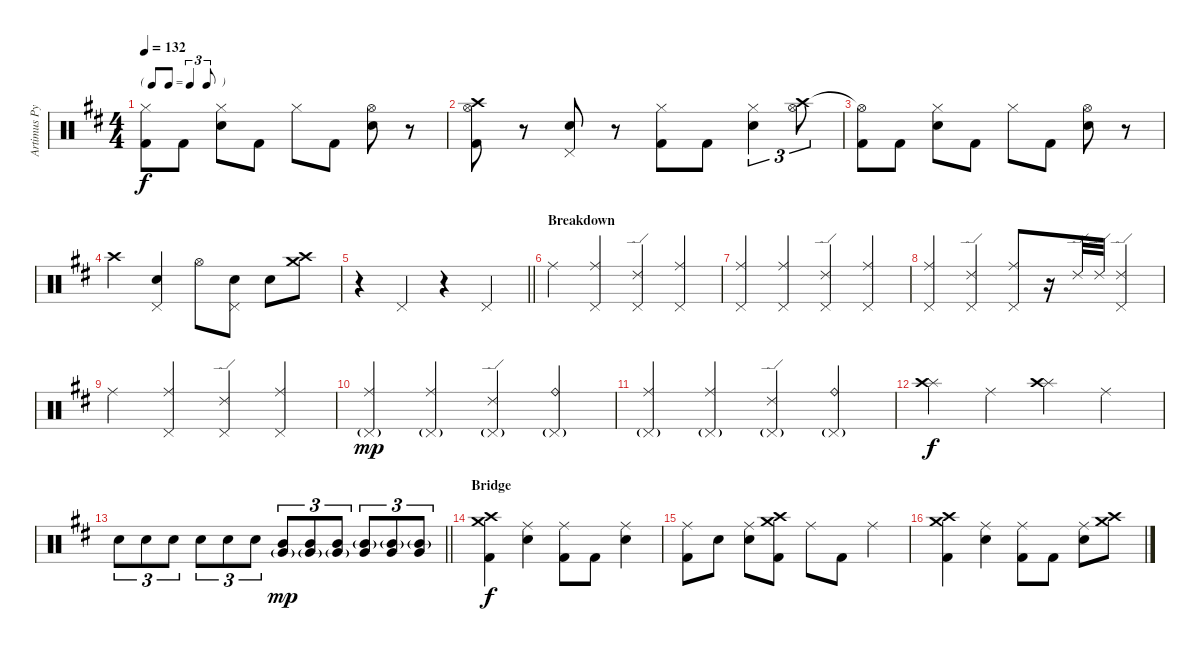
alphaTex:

\track ("Artimus Pyle - Drums" "Artimus Py") {solo instrument percussion}
\staff {score}
\articulation defaults
\ts (4 4)
\tf triplet8th
\tempo 132
\clef neutral
\ks d
("Hi-Hat (closed)"{t} "Kick (hit) 2").8{dy f} "Kick (hit) 2".8 ("Snare (hit) 2" "Hi-Hat (closed)").8 "Kick (hit) 2".8 "Hi-Hat (closed)".8 "Kick (hit) 2".8 ("Snare (hit) 2" "Hi-Hat (open)").8 r.8 |
("Crash high (hit)" "Hi-Hat (open)" "Kick (hit) 2").8 r.8 ("Snare (hit) 2" "Pedal Hi-Hat (hit)").8 r.8 ("Hi-Hat (closed)" "Kick (hit) 2").8 "Kick (hit) 2".8 ("Snare (hit) 2" "Hi-Hat (closed)").4{tu (3 2)} ("Crash high (hit)" "Hi-Hat (open)").8{tu (3 2)} |
("Hi-Hat (open)"{t} "Kick (hit) 2").8 "Kick (hit) 2".8 ("Snare (hit) 2" "Hi-Hat (closed)").8 "Kick (hit) 2".8 "Hi-Hat (closed)".8 "Kick (hit) 2".8 ("Snare (hit) 2" "Hi-Hat (open)").8 r.8 |
"Crash high (hit)".4 ("Snare (hit) 2" "Pedal Hi-Hat (hit)").4 "Hi-Hat (open)".8 ("Snare (hit) 2" "Pedal Hi-Hat (hit)").8 "Snare (hit) 2".8 ("Crash high (hit)" "Crash medium (hit)").8 |
\barLineRight lightlight
r.4 "Pedal Hi-Hat (hit)".4 r.4 "Pedal Hi-Hat (hit)".4 |
\section ("" "Breakdown")
"Ride (middle)".4 ("Ride (middle)" "Pedal Hi-Hat (hit)").4 ("Ride (edge) 2" "Pedal Hi-Hat (hit)").4 ("Ride (middle)" "Pedal Hi-Hat (hit)").4 |
("Ride (middle)" "Pedal Hi-Hat (hit)").4 ("Ride (middle)" "Pedal Hi-Hat (hit)").4 ("Ride (edge) 2" "Pedal Hi-Hat (hit)").4 ("Ride (middle)" "Pedal Hi-Hat (hit)").4 |
("Ride (middle)" "Pedal Hi-Hat (hit)").4 ("Ride (edge) 2" "Pedal Hi-Hat (hit)").4 ("Ride (middle)" "Pedal Hi-Hat (hit)").8 r.16 "Ride (edge) 2".32 "Ride (edge) 2".32 ("Ride (edge) 2" "Pedal Hi-Hat (hit)").4 |
"Ride (middle)".4 ("Ride (middle)" "Pedal Hi-Hat (hit)").4 ("Ride (edge) 2" "Pedal Hi-Hat (hit)").4 ("Ride (middle)" "Pedal Hi-Hat (hit)").4 |
("Ride (middle)" "Pedal Hi-Hat (hit)"{g}).4{dy mp} ("Ride (middle)" "Pedal Hi-Hat (hit)"{g}).4 ("Ride (edge) 2" "Pedal Hi-Hat (hit)"{g}).4 ("Ride (bell)" "Pedal Hi-Hat (hit)"{g}).4 |
("Ride (middle)" "Pedal Hi-Hat (hit)"{g}).4 ("Ride (middle)" "Pedal Hi-Hat (hit)"{g}).4 ("Ride (edge) 2" "Pedal Hi-Hat (hit)"{g}).4 ("Ride (bell)" "Pedal Hi-Hat (hit)"{g}).4 |
("Splash (hit)" "Crash high (hit)").4{dy f} "Ride (middle)".4 ("Splash (hit)" "Crash high (hit)").4 "Ride (middle)".4 |
\barLineRight lightlight "Snare (hit) 2".8{tu (3 2)} "Snare (hit) 2".8{tu (3 2)} "Snare (hit) 2".8{tu (3 2)} "Snare (hit) 2".8{tu (3 2)} "Snare (hit) 2".8{tu (3 2)} "Snare (hit) 2".8{tu (3 2)}
("Very Low Tom (hit)"{g} "Mid Tom (hit)").8{tu (3 2) dy mp} ("Very Low Tom (hit)"{g} "Mid Tom (hit)").8{tu (3 2)} ("Very Low Tom (hit)"{g} "Mid Tom (hit)").8{tu (3 2)} ("Mid Tom (hit)"{g} "Very Low Tom (hit)").8{tu (3 2)} ("Mid Tom (hit)"{g} "Very Low Tom (hit)").8{tu (3 2)} ("Mid Tom (hit)"{g} "Very Low Tom (hit)").8{tu (3 2)} |
\section ("" "Bridge")
("Crash medium (hit)" "Crash high (hit)" "Kick (hit) 2").4{dy f} ("Ride (middle)" "Snare (hit) 2").4 ("Ride (middle)" "Kick (hit) 2").8 "Kick (hit) 2".8 ("Ride (middle)" "Snare (hit) 2").4 |
("Ride (middle)" "Kick (hit) 2").8 "Snare (hit) 2".8 ("Ride (middle)" "Snare (hit) 2").8 ("Crash high (hit)" "Crash medium (hit)" "Kick (hit) 2").8 "Ride (middle)".8 "Kick (hit) 2".8 "Ride (middle)".4 |
("Crash medium (hit)" "Crash high (hit)" "Kick (hit) 2").4 ("Ride (middle)" "Snare (hit) 2").4 ("Ride (middle)" "Kick (hit) 2").8 "Kick (hit) 2".8 ("Ride (middle)" "Snare (hit) 2").8 ("Crash medium (hit)" "Crash high (hit)").8
